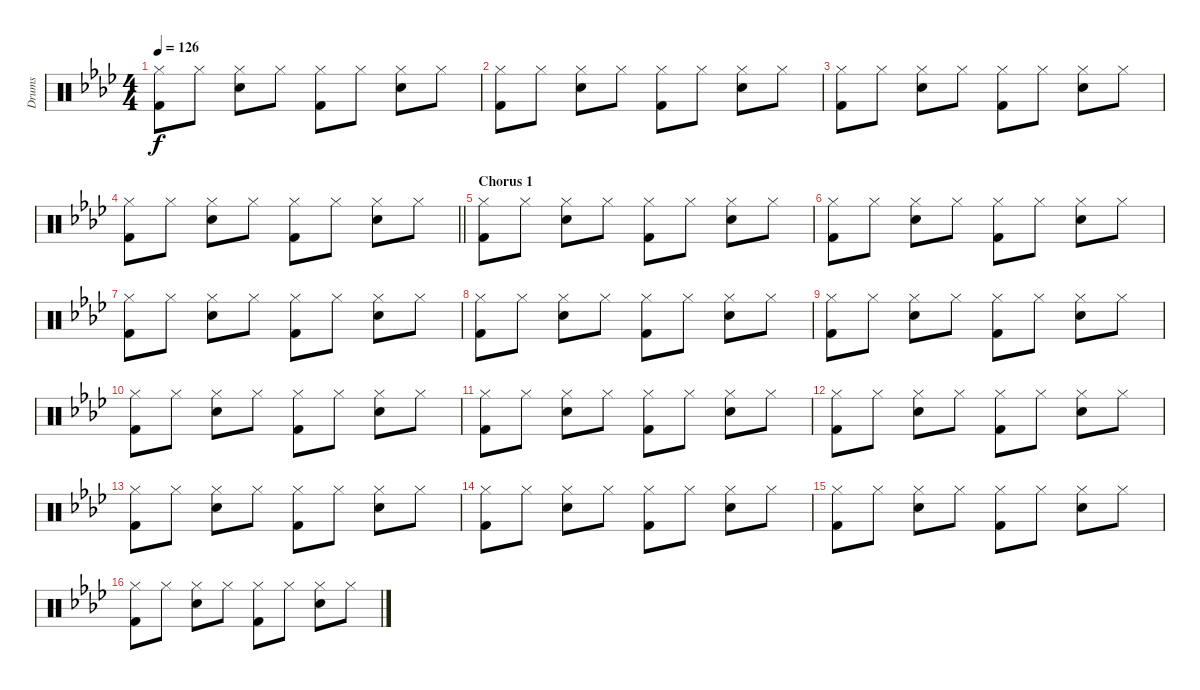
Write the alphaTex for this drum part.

\track ("Drums" "Drums") {instrument percussion}
\staff {score}
\articulation defaults
\ts (4 4)
\tempo 126
\clef neutral
\ks ab
("Hi-Hat (closed)" "Kick (hit) 2").8{dy f} "Hi-Hat (closed)".8 ("Hi-Hat (closed)" "Electric Snare (hit)").8 "Hi-Hat (closed)".8 ("Hi-Hat (closed)" "Kick (hit) 2").8 "Hi-Hat (closed)".8 ("Hi-Hat (closed)" "Electric Snare (hit)").8 "Hi-Hat (closed)".8 |
("Hi-Hat (closed)" "Kick (hit) 2").8 "Hi-Hat (closed)".8 ("Hi-Hat (closed)" "Electric Snare (hit)").8 "Hi-Hat (closed)".8 ("Hi-Hat (closed)" "Kick (hit) 2").8 "Hi-Hat (closed)".8 ("Hi-Hat (closed)" "Electric Snare (hit)").8 "Hi-Hat (closed)".8 |
("Hi-Hat (closed)" "Kick (hit) 2").8 "Hi-Hat (closed)".8 ("Hi-Hat (closed)" "Electric Snare (hit)").8 "Hi-Hat (closed)".8 ("Hi-Hat (closed)" "Kick (hit) 2").8 "Hi-Hat (closed)".8 ("Hi-Hat (closed)" "Electric Snare (hit)").8 "Hi-Hat (closed)".8 |
\barLineRight lightlight
("Hi-Hat (closed)" "Kick (hit) 2").8 "Hi-Hat (closed)".8 ("Hi-Hat (closed)" "Electric Snare (hit)").8 "Hi-Hat (closed)".8 ("Hi-Hat (closed)" "Kick (hit) 2").8 "Hi-Hat (closed)".8 ("Hi-Hat (closed)" "Electric Snare (hit)").8 "Hi-Hat (closed)".8 |
\section ("" "Chorus 1")
("Hi-Hat (closed)" "Kick (hit) 2").8 "Hi-Hat (closed)".8 ("Hi-Hat (closed)" "Electric Snare (hit)").8 "Hi-Hat (closed)".8 ("Hi-Hat (closed)" "Kick (hit) 2").8 "Hi-Hat (closed)".8 ("Hi-Hat (closed)" "Electric Snare (hit)").8 "Hi-Hat (closed)".8 |
("Hi-Hat (closed)" "Kick (hit) 2").8 "Hi-Hat (closed)".8 ("Hi-Hat (closed)" "Electric Snare (hit)").8 "Hi-Hat (closed)".8 ("Hi-Hat (closed)" "Kick (hit) 2").8 "Hi-Hat (closed)".8 ("Hi-Hat (closed)" "Electric Snare (hit)").8 "Hi-Hat (closed)".8 |
("Hi-Hat (closed)" "Kick (hit) 2").8 "Hi-Hat (closed)".8 ("Hi-Hat (closed)" "Electric Snare (hit)").8 "Hi-Hat (closed)".8 ("Hi-Hat (closed)" "Kick (hit) 2").8 "Hi-Hat (closed)".8 ("Hi-Hat (closed)" "Electric Snare (hit)").8 "Hi-Hat (closed)".8 |
("Hi-Hat (closed)" "Kick (hit) 2").8 "Hi-Hat (closed)".8 ("Hi-Hat (closed)" "Electric Snare (hit)").8 "Hi-Hat (closed)".8 ("Hi-Hat (closed)" "Kick (hit) 2").8 "Hi-Hat (closed)".8 ("Hi-Hat (closed)" "Electric Snare (hit)").8 "Hi-Hat (closed)".8 |
("Hi-Hat (closed)" "Kick (hit) 2").8 "Hi-Hat (closed)".8 ("Hi-Hat (closed)" "Electric Snare (hit)").8 "Hi-Hat (closed)".8 ("Hi-Hat (closed)" "Kick (hit) 2").8 "Hi-Hat (closed)".8 ("Hi-Hat (closed)" "Electric Snare (hit)").8 "Hi-Hat (closed)".8 |
("Hi-Hat (closed)" "Kick (hit) 2").8 "Hi-Hat (closed)".8 ("Hi-Hat (closed)" "Electric Snare (hit)").8 "Hi-Hat (closed)".8 ("Hi-Hat (closed)" "Kick (hit) 2").8 "Hi-Hat (closed)".8 ("Hi-Hat (closed)" "Electric Snare (hit)").8 "Hi-Hat (closed)".8 |
("Hi-Hat (closed)" "Kick (hit) 2").8 "Hi-Hat (closed)".8 ("Hi-Hat (closed)" "Electric Snare (hit)").8 "Hi-Hat (closed)".8 ("Hi-Hat (closed)" "Kick (hit) 2").8 "Hi-Hat (closed)".8 ("Hi-Hat (closed)" "Electric Snare (hit)").8 "Hi-Hat (closed)".8 |
("Hi-Hat (closed)" "Kick (hit) 2").8 "Hi-Hat (closed)".8 ("Hi-Hat (closed)" "Electric Snare (hit)").8 "Hi-Hat (closed)".8 ("Hi-Hat (closed)" "Kick (hit) 2").8 "Hi-Hat (closed)".8 ("Hi-Hat (closed)" "Electric Snare (hit)").8 "Hi-Hat (closed)".8 |
("Hi-Hat (closed)" "Kick (hit) 2").8 "Hi-Hat (closed)".8 ("Hi-Hat (closed)" "Electric Snare (hit)").8 "Hi-Hat (closed)".8 ("Hi-Hat (closed)" "Kick (hit) 2").8 "Hi-Hat (closed)".8 ("Hi-Hat (closed)" "Electric Snare (hit)").8 "Hi-Hat (closed)".8 |
("Hi-Hat (closed)" "Kick (hit) 2").8 "Hi-Hat (closed)".8 ("Hi-Hat (closed)" "Electric Snare (hit)").8 "Hi-Hat (closed)".8 ("Hi-Hat (closed)" "Kick (hit) 2").8 "Hi-Hat (closed)".8 ("Hi-Hat (closed)" "Electric Snare (hit)").8 "Hi-Hat (closed)".8 |
("Hi-Hat (closed)" "Kick (hit) 2").8 "Hi-Hat (closed)".8 ("Hi-Hat (closed)" "Electric Snare (hit)").8 "Hi-Hat (closed)".8 ("Hi-Hat (closed)" "Kick (hit) 2").8 "Hi-Hat (closed)".8 ("Hi-Hat (closed)" "Electric Snare (hit)").8 "Hi-Hat (closed)".8 |
("Hi-Hat (closed)" "Kick (hit) 2").8 "Hi-Hat (closed)".8 ("Hi-Hat (closed)" "Electric Snare (hit)").8 "Hi-Hat (closed)".8 ("Hi-Hat (closed)" "Kick (hit) 2").8 "Hi-Hat (closed)".8 ("Hi-Hat (closed)" "Electric Snare (hit)").8 "Hi-Hat (closed)".8
